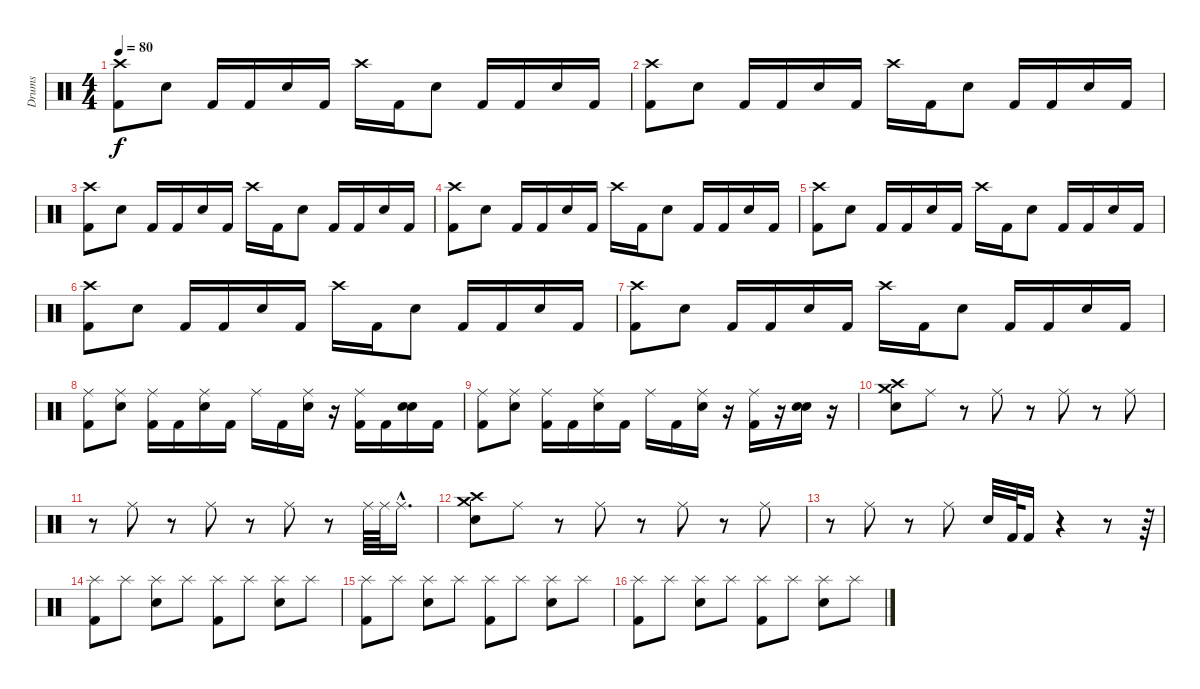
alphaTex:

\track ("Drums" "Drums") {instrument percussion}
\staff {score}
\articulation defaults
\ts (4 4)
\tempo 80
\clef neutral
\ks c
("Crash high (hit)" "Kick (hit) 2").8{dy f} "Electric Snare (hit)".8 "Kick (hit) 2".16 "Kick (hit) 2".16 "Electric Snare (hit)".16 "Kick (hit) 2".16 "Crash high (hit)".16 "Kick (hit) 2".16 "Electric Snare (hit)".8 "Kick (hit) 2".16 "Kick (hit) 2".16 "Electric Snare (hit)".16 "Kick (hit) 2".16 |
("Crash high (hit)" "Kick (hit) 2").8 "Electric Snare (hit)".8 "Kick (hit) 2".16 "Kick (hit) 2".16 "Electric Snare (hit)".16 "Kick (hit) 2".16 "Crash high (hit)".16 "Kick (hit) 2".16 "Electric Snare (hit)".8 "Kick (hit) 2".16 "Kick (hit) 2".16 "Electric Snare (hit)".16 "Kick (hit) 2".16 |
("Crash high (hit)" "Kick (hit) 2").8 "Electric Snare (hit)".8 "Kick (hit) 2".16 "Kick (hit) 2".16 "Electric Snare (hit)".16 "Kick (hit) 2".16 "Crash high (hit)".16 "Kick (hit) 2".16 "Electric Snare (hit)".8 "Kick (hit) 2".16 "Kick (hit) 2".16 "Electric Snare (hit)".16 "Kick (hit) 2".16 |
("Crash high (hit)" "Kick (hit) 2").8 "Electric Snare (hit)".8 "Kick (hit) 2".16 "Kick (hit) 2".16 "Electric Snare (hit)".16 "Kick (hit) 2".16 "Crash high (hit)".16 "Kick (hit) 2".16 "Electric Snare (hit)".8 "Kick (hit) 2".16 "Kick (hit) 2".16 "Electric Snare (hit)".16 "Kick (hit) 2".16 |
("Crash high (hit)" "Kick (hit) 2").8 "Electric Snare (hit)".8 "Kick (hit) 2".16 "Kick (hit) 2".16 "Electric Snare (hit)".16 "Kick (hit) 2".16 "Crash high (hit)".16 "Kick (hit) 2".16 "Electric Snare (hit)".8 "Kick (hit) 2".16 "Kick (hit) 2".16 "Electric Snare (hit)".16 "Kick (hit) 2".16 |
("Crash high (hit)" "Kick (hit) 2").8 "Electric Snare (hit)".8 "Kick (hit) 2".16 "Kick (hit) 2".16 "Electric Snare (hit)".16 "Kick (hit) 2".16 "Crash high (hit)".16 "Kick (hit) 2".16 "Electric Snare (hit)".8 "Kick (hit) 2".16 "Kick (hit) 2".16 "Electric Snare (hit)".16 "Kick (hit) 2".16 |
("Crash high (hit)" "Kick (hit) 2").8 "Electric Snare (hit)".8 "Kick (hit) 2".16 "Kick (hit) 2".16 "Electric Snare (hit)".16 "Kick (hit) 2".16 "Crash high (hit)".16 "Kick (hit) 2".16 "Electric Snare (hit)".8 "Kick (hit) 2".16 "Kick (hit) 2".16 "Electric Snare (hit)".16 "Kick (hit) 2".16 |
("Ride (middle)" "Kick (hit) 2").8 ("Ride (middle)" "Electric Snare (hit)").8 ("Ride (middle)" "Kick (hit) 2").16 "Kick (hit) 2".16 ("Ride (middle)" "Electric Snare (hit)").16 "Kick (hit) 2".16 "Ride (middle)".16 "Kick (hit) 2".16 ("Ride (middle)" "Electric Snare (hit)").16 r.16 ("Ride (middle)" "Kick (hit) 2").16 "Kick (hit) 2".16 ("Snare (hit)" "Electric Snare (hit)").16 "Kick (hit) 2".16 |
("Ride (middle)" "Kick (hit) 2").8 ("Ride (middle)" "Electric Snare (hit)").8 ("Ride (middle)" "Kick (hit) 2").16 "Kick (hit) 2".16 ("Ride (middle)" "Electric Snare (hit)").16 "Kick (hit) 2".16 "Ride (middle)".16 "Kick (hit) 2".16 ("Ride (middle)" "Electric Snare (hit)").16 r.16 ("Ride (middle)" "Kick (hit) 2").16 r.16 ("Electric Snare (hit)" "Snare (hit) 2").16 r.16 |
("Crash high (hit)" "Crash medium (hit)" "Snare (hit) 2").8 "Ride (middle)".8 r.8 "Ride (middle)".8 r.8 "Ride (middle)".8 r.8 "Ride (middle)".8 |
r.8 "Ride (middle)".8 r.8 "Ride (middle)".8 r.8 "Ride (middle)".8 r.8 "Ride (middle)".64 "Ride (middle)".64 "Ride (middle)"{hac}.16{d} |
("Crash high (hit)" "Crash medium (hit)" "Snare (hit) 2").8 "Ride (middle)".8 r.8 "Ride (middle)".8 r.8 "Ride (middle)".8 r.8 "Ride (middle)".8 |
r.8 "Ride (middle)".8 r.8 "Ride (middle)".8 "Electric Snare (hit)".32 "Kick (hit) 2".64 "Kick (hit) 2".16 r.4 r.8 r.64 |
("Splash (hit)" "Kick (hit) 2").8 "Splash (hit)".8 ("Splash (hit)" "Electric Snare (hit)").8 "Splash (hit)".8 ("Splash (hit)" "Kick (hit) 2").8 "Splash (hit)".8 ("Splash (hit)" "Electric Snare (hit)").8 "Splash (hit)".8 |
("Splash (hit)" "Kick (hit) 2").8 "Splash (hit)".8 ("Splash (hit)" "Electric Snare (hit)").8 "Splash (hit)".8 ("Splash (hit)" "Kick (hit) 2").8 "Splash (hit)".8 ("Splash (hit)" "Electric Snare (hit)").8 "Splash (hit)".8 |
("Splash (hit)" "Kick (hit) 2").8 "Splash (hit)".8 ("Splash (hit)" "Electric Snare (hit)").8 "Splash (hit)".8 ("Splash (hit)" "Kick (hit) 2").8 "Splash (hit)".8 ("Splash (hit)" "Electric Snare (hit)").8 "Splash (hit)".8
